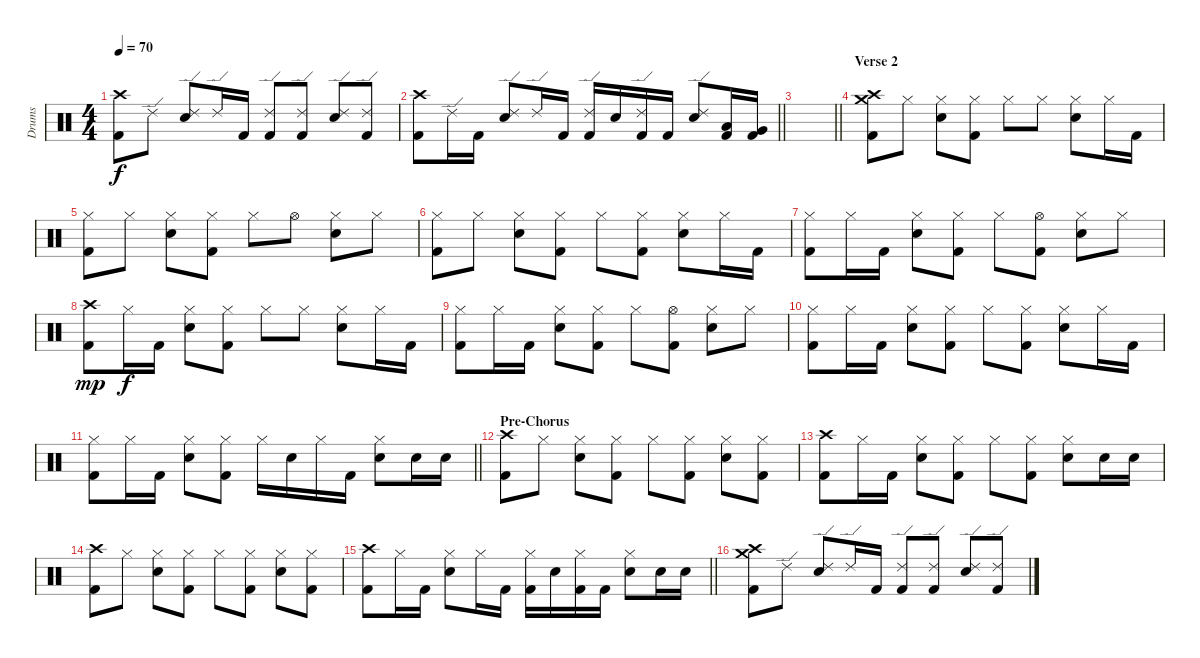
\track ("Drums" "Drums") {instrument percussion}
\staff {score}
\articulation defaults
\ts (4 4)
\tempo 70
\clef neutral
\ks c
("Crash high (hit)" "Kick (hit) 2").8{dy f} "Ride (edge) 2".8 ("Ride (edge) 2" "Snare (hit) 2").8 "Ride (edge) 2".16 "Kick (hit) 2".16 ("Ride (edge) 2" "Kick (hit) 2").8 ("Ride (edge) 2" "Kick (hit) 2").8 ("Ride (edge) 2" "Snare (hit) 2").8 ("Ride (edge) 2" "Kick (hit) 2").8 |
\barLineRight lightlight
("Crash high (hit)" "Kick (hit) 2").8 "Ride (edge) 2".16 "Kick (hit) 2".16 ("Ride (edge) 2" "Snare (hit) 2").8 "Ride (edge) 2".16 "Kick (hit) 2".16 ("Ride (edge) 2" "Kick (hit) 2").16 "Snare (hit) 2".16 ("Ride (edge) 2" "Kick (hit) 2").16 "Kick (hit) 2".16 ("Ride (edge) 2" "Snare (hit) 2").8 ("Low Tom (hit)" "Kick (hit) 2").16 ("Very Low Tom (hit)" "Kick (hit) 2").16 |
\barLineRight lightlight
|
\section ("" "Verse 2")
("Crash high (hit)" "Crash medium (hit)" "Kick (hit) 2").8 "Hi-Hat (closed)".8 ("Hi-Hat (closed)" "Snare (hit) 2").8 ("Hi-Hat (closed)" "Kick (hit) 2").8 "Hi-Hat (closed)".8 "Hi-Hat (closed)".8 ("Hi-Hat (closed)" "Snare (hit) 2").8 "Hi-Hat (closed)".16 "Kick (hit) 2".16 |
("Hi-Hat (closed)" "Kick (hit) 2").8 "Hi-Hat (closed)".8 ("Hi-Hat (closed)" "Snare (hit) 2").8 ("Hi-Hat (closed)" "Kick (hit) 2").8 "Hi-Hat (closed)".8 "Hi-Hat (open)".8 ("Hi-Hat (closed)" "Snare (hit) 2").8 "Hi-Hat (closed)".8 |
("Hi-Hat (closed)" "Kick (hit) 2").8 "Hi-Hat (closed)".8 ("Hi-Hat (closed)" "Snare (hit) 2").8 ("Hi-Hat (closed)" "Kick (hit) 2").8 "Hi-Hat (closed)".8 ("Hi-Hat (closed)" "Kick (hit) 2").8 ("Hi-Hat (closed)" "Snare (hit) 2").8 "Hi-Hat (closed)".16 "Kick (hit) 2".16 |
("Hi-Hat (closed)" "Kick (hit) 2").8 "Hi-Hat (closed)".16 "Kick (hit) 2".16 ("Hi-Hat (closed)" "Snare (hit) 2").8 ("Hi-Hat (closed)" "Kick (hit) 2").8 "Hi-Hat (closed)".8 ("Hi-Hat (open)" "Kick (hit) 2").8 ("Hi-Hat (closed)" "Snare (hit) 2").8 "Hi-Hat (closed)".8 |
("Crash high (hit)" "Kick (hit) 2").8{dy mp} "Hi-Hat (closed)".16{dy f} "Kick (hit) 2".16 ("Hi-Hat (closed)" "Snare (hit) 2").8 ("Hi-Hat (closed)" "Kick (hit) 2").8 "Hi-Hat (closed)".8 "Hi-Hat (closed)".8 ("Hi-Hat (closed)" "Snare (hit) 2").8 "Hi-Hat (closed)".16 "Kick (hit) 2".16 |
("Hi-Hat (closed)" "Kick (hit) 2").8 "Hi-Hat (closed)".16 "Kick (hit) 2".16 ("Hi-Hat (closed)" "Snare (hit) 2").8 ("Hi-Hat (closed)" "Kick (hit) 2").8 "Hi-Hat (closed)".8 ("Hi-Hat (open)" "Kick (hit) 2").8 ("Hi-Hat (closed)" "Snare (hit) 2").8 "Hi-Hat (closed)".8 |
("Hi-Hat (closed)" "Kick (hit) 2").8 "Hi-Hat (closed)".16 "Kick (hit) 2".16 ("Hi-Hat (closed)" "Snare (hit) 2").8 ("Hi-Hat (closed)" "Kick (hit) 2").8 "Hi-Hat (closed)".8 ("Hi-Hat (closed)" "Kick (hit) 2").8 ("Hi-Hat (closed)" "Snare (hit) 2").8 "Hi-Hat (closed)".16 "Kick (hit) 2".16 |
\barLineRight lightlight
("Hi-Hat (closed)" "Kick (hit) 2").8 "Hi-Hat (closed)".16 "Kick (hit) 2".16 ("Hi-Hat (closed)" "Snare (hit) 2").8 ("Hi-Hat (closed)" "Kick (hit) 2").8 "Hi-Hat (closed)".16 "Snare (hit) 2".16 "Hi-Hat (closed)".16 "Kick (hit) 2".16 ("Hi-Hat (closed)" "Snare (hit) 2").8 "Snare (hit) 2".16 "Snare (hit) 2".16 |
\section ("" "Pre-Chorus")
("Crash high (hit)" "Kick (hit) 2").8 "Hi-Hat (closed)".8 ("Hi-Hat (closed)" "Snare (hit) 2").8 ("Hi-Hat (closed)" "Kick (hit) 2").8 "Hi-Hat (closed)".8 ("Hi-Hat (closed)" "Kick (hit) 2").8 ("Hi-Hat (closed)" "Snare (hit) 2").8 ("Hi-Hat (closed)" "Kick (hit) 2").8 |
("Crash high (hit)" "Kick (hit) 2").8 "Hi-Hat (closed)".16 "Kick (hit) 2".16 ("Hi-Hat (closed)" "Snare (hit) 2").8 ("Hi-Hat (closed)" "Kick (hit) 2").8 "Hi-Hat (closed)".8 ("Hi-Hat (closed)" "Kick (hit) 2").8 ("Hi-Hat (closed)" "Snare (hit) 2").8 "Snare (hit) 2".16 "Snare (hit) 2".16 |
("Crash high (hit)" "Kick (hit) 2").8 "Hi-Hat (closed)".8 ("Hi-Hat (closed)" "Snare (hit) 2").8 ("Hi-Hat (closed)" "Kick (hit) 2").8 "Hi-Hat (closed)".8 ("Hi-Hat (closed)" "Kick (hit) 2").8 ("Hi-Hat (closed)" "Snare (hit) 2").8 ("Hi-Hat (closed)" "Kick (hit) 2").8 |
\barLineRight lightlight
("Crash high (hit)" "Kick (hit) 2").8 "Hi-Hat (closed)".16 "Kick (hit) 2".16 ("Hi-Hat (closed)" "Snare (hit) 2").8 "Hi-Hat (closed)".16 "Kick (hit) 2".16 ("Hi-Hat (closed)" "Kick (hit) 2").16 "Snare (hit) 2".16 ("Hi-Hat (closed)" "Kick (hit) 2").16 "Kick (hit) 2".16 ("Hi-Hat (closed)" "Snare (hit) 2").8 "Snare (hit) 2".16 "Snare (hit) 2".16 |
("Crash high (hit)" "Crash medium (hit)" "Kick (hit) 2").8 "Ride (edge) 2".8 ("Ride (edge) 2" "Snare (hit) 2").8 "Ride (edge) 2".16 "Kick (hit) 2".16 ("Ride (edge) 2" "Kick (hit) 2").8 ("Ride (edge) 2" "Kick (hit) 2").8 ("Ride (edge) 2" "Snare (hit) 2").8 ("Ride (edge) 2" "Kick (hit) 2").8
